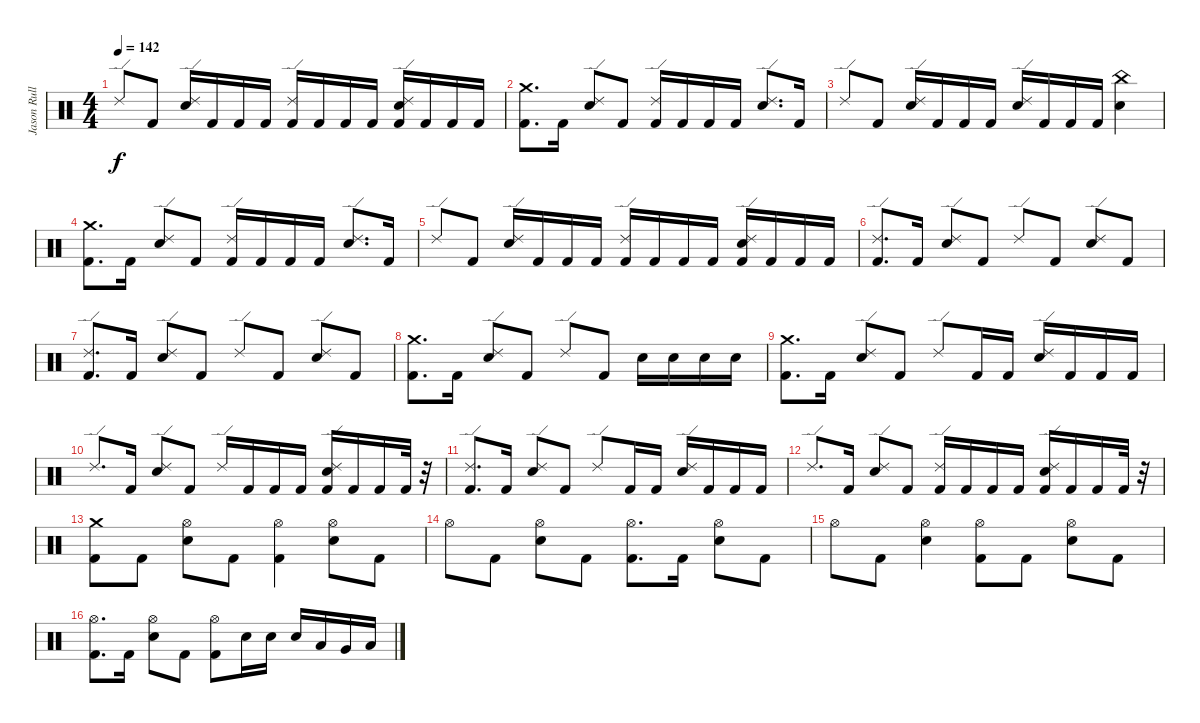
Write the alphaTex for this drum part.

\track ("Jason Rullo (drums)" "Jason Rull") {solo instrument percussion}
\staff {score}
\articulation defaults
\ts (4 4)
\tempo 142
\clef neutral
\ks c "Ride (edge) 2".8{dy f} "Kick (hit) 2".8
("Electric Snare (hit)" "Ride (edge) 2").16 "Kick (hit) 2".16 "Kick (hit) 2".16 "Kick (hit) 2".16 ("Kick (hit) 2" "Ride (edge) 2").16 "Kick (hit) 2".16 "Kick (hit) 2".16 "Kick (hit) 2".16 ("Electric Snare (hit)" "Kick (hit) 2" "Ride (edge) 2").16 "Kick (hit) 2".16 "Kick (hit) 2".16 "Kick (hit) 2".16 |
("Crash medium (hit)" "Kick (hit) 2").8{d} "Kick (hit) 2".16 ("Ride (edge) 2" "Electric Snare (hit)").8 "Kick (hit) 2".8 ("Ride (edge) 2" "Kick (hit) 2").16 "Kick (hit) 2".16 "Kick (hit) 2".16 "Kick (hit) 2".16 ("Ride (edge) 2" "Electric Snare (hit)").8{d} "Kick (hit) 2".16 |
"Ride (edge) 2".8 "Kick (hit) 2".8 ("Electric Snare (hit)" "Ride (edge) 2").16 "Kick (hit) 2".16 "Kick (hit) 2".16 "Kick (hit) 2".16 ("Electric Snare (hit)" "Ride (edge) 2").16 "Kick (hit) 2".16 "Kick (hit) 2".16 "Kick (hit) 2".16 ("China (hit)" "Electric Snare (hit)").4 |
("Crash medium (hit)" "Kick (hit) 2").8{d} "Kick (hit) 2".16 ("Ride (edge) 2" "Electric Snare (hit)").8 "Kick (hit) 2".8 ("Ride (edge) 2" "Kick (hit) 2").16 "Kick (hit) 2".16 "Kick (hit) 2".16 "Kick (hit) 2".16 ("Ride (edge) 2" "Electric Snare (hit)").8{d} "Kick (hit) 2".16 |
"Ride (edge) 2".8 "Kick (hit) 2".8 ("Electric Snare (hit)" "Ride (edge) 2").16 "Kick (hit) 2".16 "Kick (hit) 2".16 "Kick (hit) 2".16 ("Kick (hit) 2" "Ride (edge) 2").16 "Kick (hit) 2".16 "Kick (hit) 2".16 "Kick (hit) 2".16 ("Electric Snare (hit)" "Kick (hit) 2" "Ride (edge) 2").16 "Kick (hit) 2".16 "Kick (hit) 2".16 "Kick (hit) 2".16 |
("Ride (edge) 2" "Kick (hit) 2").8{d} "Kick (hit) 2".16 ("Ride (edge) 2" "Electric Snare (hit)").8 "Kick (hit) 2".8 "Ride (edge) 2".8 "Kick (hit) 2".8 ("Ride (edge) 2" "Electric Snare (hit)").8 "Kick (hit) 2".8 |
("Ride (edge) 2" "Kick (hit) 2").8{d} "Kick (hit) 2".16 ("Ride (edge) 2" "Electric Snare (hit)").8 "Kick (hit) 2".8 "Ride (edge) 2".8 "Kick (hit) 2".8 ("Ride (edge) 2" "Electric Snare (hit)").8 "Kick (hit) 2".8 |
("Crash medium (hit)" "Kick (hit) 2").8{d} "Kick (hit) 2".16 ("Ride (edge) 2" "Electric Snare (hit)").8 "Kick (hit) 2".8 "Ride (edge) 2".8 "Kick (hit) 2".8 "Electric Snare (hit)".16 "Electric Snare (hit)".16 "Electric Snare (hit)".16 "Electric Snare (hit)".16 |
("Crash medium (hit)" "Kick (hit) 2").8{d volume 16 balance 8} "Kick (hit) 2".16 ("Ride (edge) 2" "Electric Snare (hit)").8 "Kick (hit) 2".8 "Ride (edge) 2".8 "Kick (hit) 2".16 "Kick (hit) 2".16 ("Ride (edge) 2" "Electric Snare (hit)").16 "Kick (hit) 2".16 "Kick (hit) 2".16 "Kick (hit) 2".16 |
"Ride (edge) 2".8{d} "Kick (hit) 2".16 ("Ride (edge) 2" "Electric Snare (hit)").8 "Kick (hit) 2".8 "Ride (edge) 2".16 "Kick (hit) 2".16 "Kick (hit) 2".16 "Kick (hit) 2".16 ("Ride (edge) 2" "Electric Snare (hit)" "Kick (hit) 2").16 "Kick (hit) 2".16 "Kick (hit) 2".16 "Kick (hit) 2".32 r.32 |
("Ride (edge) 2" "Kick (hit) 2").8{d} "Kick (hit) 2".16 ("Ride (edge) 2" "Electric Snare (hit)").8 "Kick (hit) 2".8 "Ride (edge) 2".8 "Kick (hit) 2".16 "Kick (hit) 2".16 ("Ride (edge) 2" "Electric Snare (hit)").16 "Kick (hit) 2".16 "Kick (hit) 2".16 "Kick (hit) 2".16 |
"Ride (edge) 2".8{d} "Kick (hit) 2".16 ("Ride (edge) 2" "Electric Snare (hit)").8 "Kick (hit) 2".8 ("Kick (hit) 2" "Ride (edge) 2").16 "Kick (hit) 2".16 "Kick (hit) 2".16 "Kick (hit) 2".16 ("Ride (edge) 2" "Electric Snare (hit)" "Kick (hit) 2").16 "Kick (hit) 2".16 "Kick (hit) 2".16 "Kick (hit) 2".32 r.32 |
("Crash medium (hit)" "Kick (hit) 2").8 "Kick (hit) 2".8 ("Hi-Hat (open)" "Electric Snare (hit)").8 "Kick (hit) 2".8 ("Hi-Hat (open)" "Kick (hit) 2").4 ("Hi-Hat (open)" "Electric Snare (hit)").8 "Kick (hit) 2".8 |
"Hi-Hat (open)".8 "Kick (hit) 2".8 ("Hi-Hat (open)" "Electric Snare (hit)").8 "Kick (hit) 2".8 ("Hi-Hat (open)" "Kick (hit) 2").8{d} "Kick (hit) 2".16 ("Hi-Hat (open)" "Electric Snare (hit)").8 "Kick (hit) 2".8 |
"Hi-Hat (open)".8 "Kick (hit) 2".8 ("Hi-Hat (open)" "Electric Snare (hit)").4 ("Hi-Hat (open)" "Kick (hit) 2").8 "Kick (hit) 2".8 ("Hi-Hat (open)" "Electric Snare (hit)").8 "Kick (hit) 2".8 |
("Hi-Hat (open)" "Kick (hit) 2").8{d} "Kick (hit) 2".16 ("Hi-Hat (open)" "Electric Snare (hit)").8 "Kick (hit) 2".8 ("Hi-Hat (open)" "Kick (hit) 2").8 "Electric Snare (hit)".16 "Electric Snare (hit)".16 "Electric Snare (hit)".16 "Low Tom (hit)".16 "Very Low Tom (hit)".16 "Low Floor Tom (hit)".16
